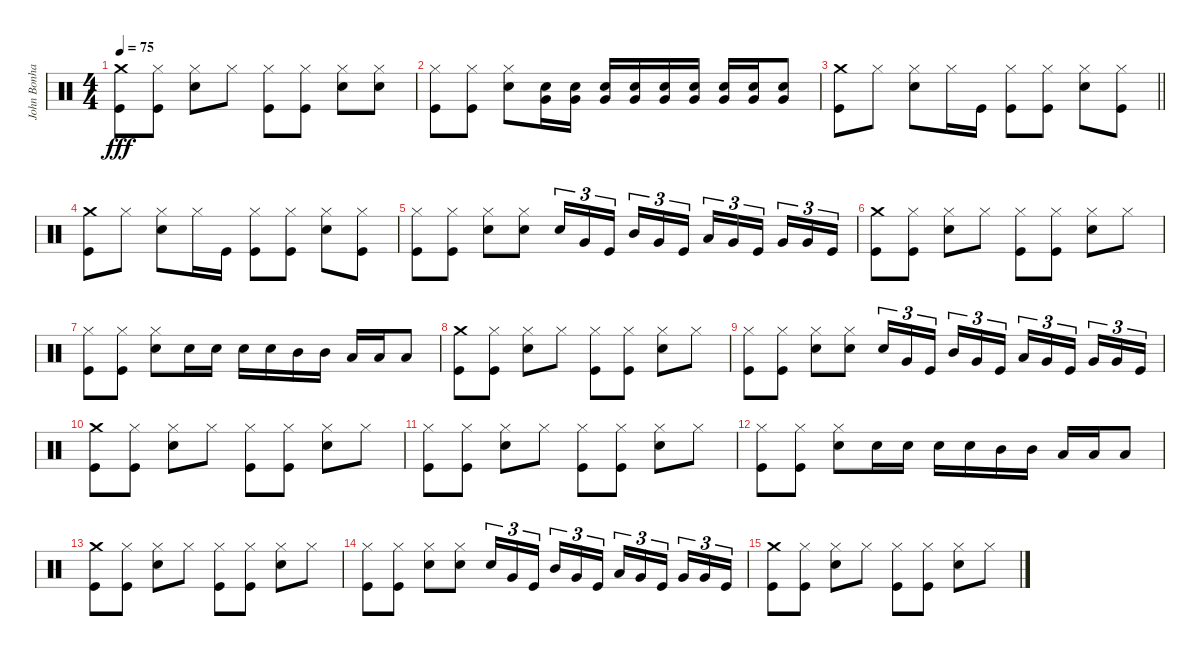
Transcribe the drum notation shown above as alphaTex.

\track ("John Bonham (Bateria)" "John Bonha") {instrument percussion}
\staff {score}
\articulation defaults
\ts (4 4)
\tempo 75
\clef neutral
\ks c
("Crash medium (hit)" "Kick (hit)").8{dy fff} ("Hi-Hat (closed)" "Kick (hit)").8 ("Hi-Hat (closed)" "Snare (hit) 2").8 "Hi-Hat (closed)".8 ("Hi-Hat (closed)" "Kick (hit)").8 ("Hi-Hat (closed)" "Kick (hit)").8 ("Hi-Hat (closed)" "Snare (hit) 2").8 ("Hi-Hat (closed)" "Snare (hit) 2").8 |
("Hi-Hat (closed)" "Kick (hit)").8 ("Hi-Hat (closed)" "Kick (hit)").8 ("Hi-Hat (closed)" "Snare (hit) 2").8 ("Snare (hit) 2" "Very Low Tom (hit)").16 ("Snare (hit) 2" "Very Low Tom (hit)").16 ("Snare (hit) 2" "Very Low Tom (hit)").16 ("Snare (hit) 2" "Very Low Tom (hit)").16 ("Snare (hit) 2" "Very Low Tom (hit)").16 ("Snare (hit) 2" "Very Low Tom (hit)").16 ("Snare (hit) 2" "Very Low Tom (hit)").16 ("Snare (hit) 2" "Very Low Tom (hit)").16 ("Snare (hit) 2" "Very Low Tom (hit)").8 |
\barLineRight lightlight
("Crash medium (hit)" "Kick (hit)").8 "Hi-Hat (closed)".8 ("Hi-Hat (closed)" "Snare (hit) 2").8 "Hi-Hat (closed)".16 "Kick (hit)".16 ("Hi-Hat (closed)" "Kick (hit)").8 ("Hi-Hat (closed)" "Kick (hit)").8 ("Hi-Hat (closed)" "Snare (hit) 2").8 ("Hi-Hat (closed)" "Kick (hit)").8 |
("Crash medium (hit)" "Kick (hit)").8 "Hi-Hat (closed)".8 ("Hi-Hat (closed)" "Snare (hit) 2").8 "Hi-Hat (closed)".16 "Kick (hit)".16 ("Hi-Hat (closed)" "Kick (hit)").8 ("Hi-Hat (closed)" "Kick (hit)").8 ("Hi-Hat (closed)" "Snare (hit) 2").8 ("Hi-Hat (closed)" "Kick (hit)").8 |
("Hi-Hat (closed)" "Kick (hit)").8 ("Hi-Hat (closed)" "Kick (hit)").8 ("Hi-Hat (closed)" "Snare (hit) 2").8 ("Hi-Hat (closed)" "Snare (hit) 2").8 "Snare (hit) 2".16{tu (3 2)} "Very Low Tom (hit)".16{tu (3 2)} "Kick (hit)".16{tu (3 2) beam splitsecondary} "Mid Tom (hit)".16{tu (3 2)} "Very Low Tom (hit)".16{tu (3 2)} "Kick (hit)".16{tu (3 2)} "Low Tom (hit)".16{tu (3 2)} "Very Low Tom (hit)".16{tu (3 2)} "Kick (hit)".16{tu (3 2) beam splitsecondary} "Very Low Tom (hit)".16{tu (3 2)} "Very Low Tom (hit)".16{tu (3 2)} "Kick (hit)".16{tu (3 2)} |
("Crash medium (hit)" "Kick (hit)").8 ("Hi-Hat (closed)" "Kick (hit)").8 ("Hi-Hat (closed)" "Snare (hit) 2").8 "Hi-Hat (closed)".8 ("Hi-Hat (closed)" "Kick (hit)").8 ("Hi-Hat (closed)" "Kick (hit)").8 ("Hi-Hat (closed)" "Snare (hit) 2").8 "Hi-Hat (closed)".8 |
("Hi-Hat (closed)" "Kick (hit)").8 ("Hi-Hat (closed)" "Kick (hit)").8 ("Hi-Hat (closed)" "Snare (hit) 2").8 "Snare (hit) 2".16 "Snare (hit) 2".16 "Snare (hit) 2".16 "Snare (hit) 2".16 "Mid Tom (hit)".16 "Mid Tom (hit)".16 "Low Tom (hit)".16 "Low Tom (hit)".16 "Low Tom (hit)".8 |
("Crash medium (hit)" "Kick (hit)").8 ("Hi-Hat (closed)" "Kick (hit)").8 ("Hi-Hat (closed)" "Snare (hit) 2").8 "Hi-Hat (closed)".8 ("Hi-Hat (closed)" "Kick (hit)").8 ("Hi-Hat (closed)" "Kick (hit)").8 ("Hi-Hat (closed)" "Snare (hit) 2").8 "Hi-Hat (closed)".8 |
("Hi-Hat (closed)" "Kick (hit)").8 ("Hi-Hat (closed)" "Kick (hit)").8 ("Hi-Hat (closed)" "Snare (hit) 2").8 ("Hi-Hat (closed)" "Snare (hit) 2").8 "Snare (hit) 2".16{tu (3 2)} "Very Low Tom (hit)".16{tu (3 2)} "Kick (hit)".16{tu (3 2) beam splitsecondary} "Mid Tom (hit)".16{tu (3 2)} "Very Low Tom (hit)".16{tu (3 2)} "Kick (hit)".16{tu (3 2)} "Low Tom (hit)".16{tu (3 2)} "Very Low Tom (hit)".16{tu (3 2)} "Kick (hit)".16{tu (3 2) beam splitsecondary} "Very Low Tom (hit)".16{tu (3 2)} "Very Low Tom (hit)".16{tu (3 2)} "Kick (hit)".16{tu (3 2)} |
("Crash medium (hit)" "Kick (hit)").8 ("Hi-Hat (closed)" "Kick (hit)").8 ("Hi-Hat (closed)" "Snare (hit) 2").8 "Hi-Hat (closed)".8 ("Hi-Hat (closed)" "Kick (hit)").8 ("Hi-Hat (closed)" "Kick (hit)").8 ("Hi-Hat (closed)" "Snare (hit) 2").8 "Hi-Hat (closed)".8 |
("Hi-Hat (closed)" "Kick (hit)").8 ("Hi-Hat (closed)" "Kick (hit)").8 ("Hi-Hat (closed)" "Snare (hit) 2").8 "Hi-Hat (closed)".8 ("Hi-Hat (closed)" "Kick (hit)").8 ("Hi-Hat (closed)" "Kick (hit)").8 ("Hi-Hat (closed)" "Snare (hit) 2").8 "Hi-Hat (closed)".8 |
("Hi-Hat (closed)" "Kick (hit)").8 ("Hi-Hat (closed)" "Kick (hit)").8 ("Hi-Hat (closed)" "Snare (hit) 2").8 "Snare (hit) 2".16 "Snare (hit) 2".16 "Snare (hit) 2".16 "Snare (hit) 2".16 "Mid Tom (hit)".16 "Mid Tom (hit)".16 "Low Tom (hit)".16 "Low Tom (hit)".16 "Low Tom (hit)".8 |
("Crash medium (hit)" "Kick (hit)").8 ("Hi-Hat (closed)" "Kick (hit)").8 ("Hi-Hat (closed)" "Snare (hit) 2").8 "Hi-Hat (closed)".8 ("Hi-Hat (closed)" "Kick (hit)").8 ("Hi-Hat (closed)" "Kick (hit)").8 ("Hi-Hat (closed)" "Snare (hit) 2").8 "Hi-Hat (closed)".8 |
("Hi-Hat (closed)" "Kick (hit)").8 ("Hi-Hat (closed)" "Kick (hit)").8 ("Hi-Hat (closed)" "Snare (hit) 2").8 ("Hi-Hat (closed)" "Snare (hit) 2").8 "Snare (hit) 2".16{tu (3 2)} "Very Low Tom (hit)".16{tu (3 2)} "Kick (hit)".16{tu (3 2) beam splitsecondary} "Mid Tom (hit)".16{tu (3 2)} "Very Low Tom (hit)".16{tu (3 2)} "Kick (hit)".16{tu (3 2)} "Low Tom (hit)".16{tu (3 2)} "Very Low Tom (hit)".16{tu (3 2)} "Kick (hit)".16{tu (3 2) beam splitsecondary} "Very Low Tom (hit)".16{tu (3 2)} "Very Low Tom (hit)".16{tu (3 2)} "Kick (hit)".16{tu (3 2)} |
("Crash medium (hit)" "Kick (hit)").8 ("Hi-Hat (closed)" "Kick (hit)").8 ("Hi-Hat (closed)" "Snare (hit) 2").8 "Hi-Hat (closed)".8 ("Hi-Hat (closed)" "Kick (hit)").8 ("Hi-Hat (closed)" "Kick (hit)").8 ("Hi-Hat (closed)" "Snare (hit) 2").8 "Hi-Hat (closed)".8
